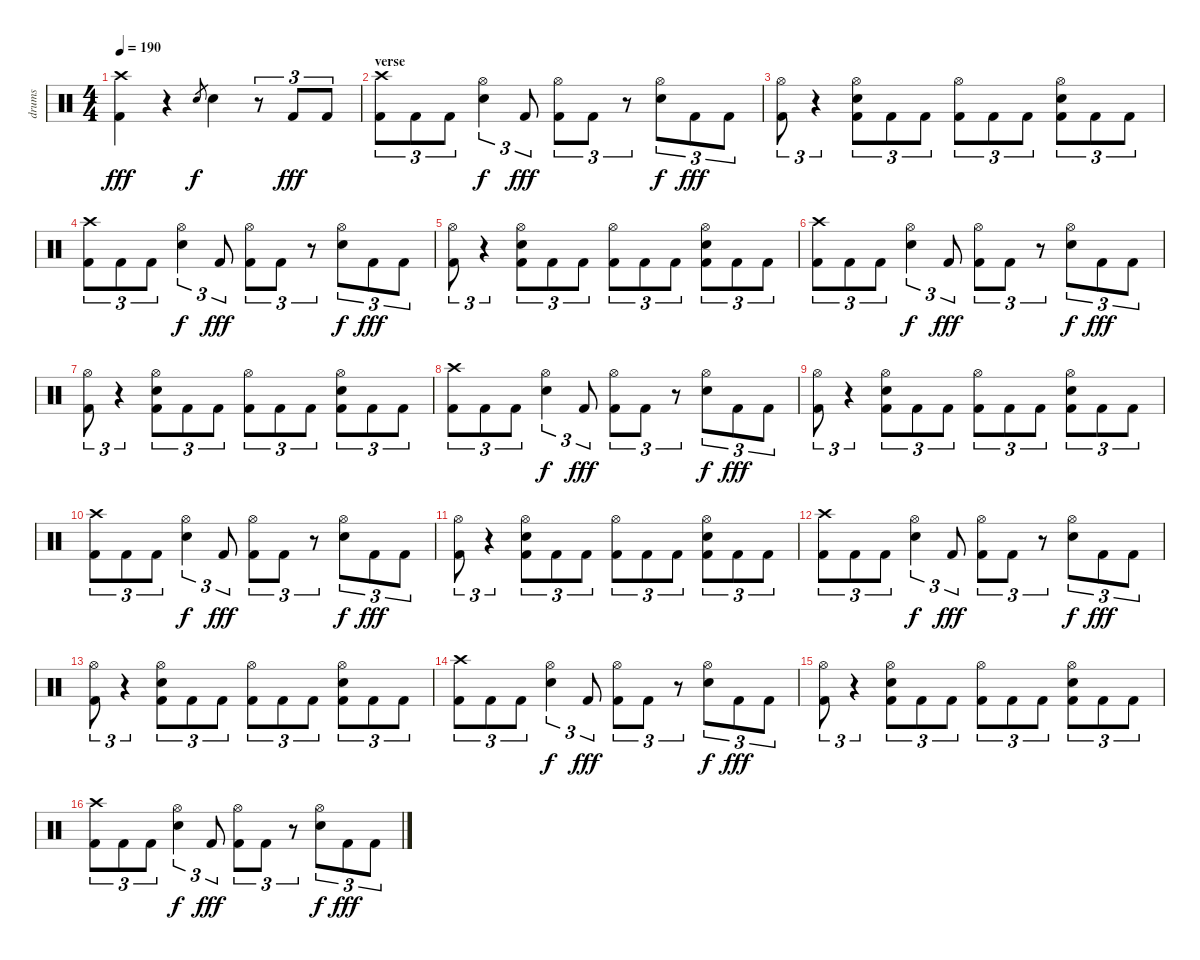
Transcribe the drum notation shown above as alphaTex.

\track ("drums" "drums") {instrument percussion}
\staff {score}
\articulation defaults
\ts (4 4)
\tempo 190
\clef neutral
\ks c
("Crash high (hit)" "Kick (hit) 2").4{dy fff} r.4 "Snare (hit) 2".8{gr dy f} "Snare (hit) 2".4 r.8{tu (3 2)} "Kick (hit) 2".8{tu (3 2) dy fff} "Kick (hit) 2".8{tu (3 2)} |
\section ("" "verse")
("Crash high (hit)" "Kick (hit) 2").8{tu (3 2)} "Kick (hit) 2".8{tu (3 2)} "Kick (hit) 2".8{tu (3 2)} ("Hi-Hat (open)" "Snare (hit) 2").4{tu (3 2) dy f} "Kick (hit) 2".8{tu (3 2) dy fff} ("Hi-Hat (open)" "Kick (hit) 2").8{tu (3 2)} "Kick (hit) 2".8{tu (3 2)} r.8{tu (3 2)} ("Hi-Hat (open)" "Snare (hit) 2").8{tu (3 2) dy f} "Kick (hit) 2".8{tu (3 2) dy fff} "Kick (hit) 2".8{tu (3 2)} |
("Hi-Hat (open)" "Kick (hit) 2").8{tu (3 2)} r.4{tu (3 2)} ("Hi-Hat (open)" "Snare (hit) 2" "Kick (hit) 2").8{tu (3 2)} "Kick (hit) 2".8{tu (3 2)} "Kick (hit) 2".8{tu (3 2)} ("Hi-Hat (open)" "Kick (hit) 2").8{tu (3 2)} "Kick (hit) 2".8{tu (3 2)} "Kick (hit) 2".8{tu (3 2)} ("Hi-Hat (open)" "Snare (hit) 2" "Kick (hit) 2").8{tu (3 2)} "Kick (hit) 2".8{tu (3 2)} "Kick (hit) 2".8{tu (3 2)} |
("Crash high (hit)" "Kick (hit) 2").8{tu (3 2)} "Kick (hit) 2".8{tu (3 2)} "Kick (hit) 2".8{tu (3 2)} ("Hi-Hat (open)" "Snare (hit) 2").4{tu (3 2) dy f} "Kick (hit) 2".8{tu (3 2) dy fff} ("Hi-Hat (open)" "Kick (hit) 2").8{tu (3 2)} "Kick (hit) 2".8{tu (3 2)} r.8{tu (3 2)} ("Hi-Hat (open)" "Snare (hit) 2").8{tu (3 2) dy f} "Kick (hit) 2".8{tu (3 2) dy fff} "Kick (hit) 2".8{tu (3 2)} |
("Hi-Hat (open)" "Kick (hit) 2").8{tu (3 2)} r.4{tu (3 2)} ("Hi-Hat (open)" "Snare (hit) 2" "Kick (hit) 2").8{tu (3 2)} "Kick (hit) 2".8{tu (3 2)} "Kick (hit) 2".8{tu (3 2)} ("Hi-Hat (open)" "Kick (hit) 2").8{tu (3 2)} "Kick (hit) 2".8{tu (3 2)} "Kick (hit) 2".8{tu (3 2)} ("Hi-Hat (open)" "Snare (hit) 2" "Kick (hit) 2").8{tu (3 2)} "Kick (hit) 2".8{tu (3 2)} "Kick (hit) 2".8{tu (3 2)} |
("Crash high (hit)" "Kick (hit) 2").8{tu (3 2)} "Kick (hit) 2".8{tu (3 2)} "Kick (hit) 2".8{tu (3 2)} ("Hi-Hat (open)" "Snare (hit) 2").4{tu (3 2) dy f} "Kick (hit) 2".8{tu (3 2) dy fff} ("Hi-Hat (open)" "Kick (hit) 2").8{tu (3 2)} "Kick (hit) 2".8{tu (3 2)} r.8{tu (3 2)} ("Hi-Hat (open)" "Snare (hit) 2").8{tu (3 2) dy f} "Kick (hit) 2".8{tu (3 2) dy fff} "Kick (hit) 2".8{tu (3 2)} |
("Hi-Hat (open)" "Kick (hit) 2").8{tu (3 2)} r.4{tu (3 2)} ("Hi-Hat (open)" "Snare (hit) 2" "Kick (hit) 2").8{tu (3 2)} "Kick (hit) 2".8{tu (3 2)} "Kick (hit) 2".8{tu (3 2)} ("Hi-Hat (open)" "Kick (hit) 2").8{tu (3 2)} "Kick (hit) 2".8{tu (3 2)} "Kick (hit) 2".8{tu (3 2)} ("Hi-Hat (open)" "Snare (hit) 2" "Kick (hit) 2").8{tu (3 2)} "Kick (hit) 2".8{tu (3 2)} "Kick (hit) 2".8{tu (3 2)} |
("Crash high (hit)" "Kick (hit) 2").8{tu (3 2)} "Kick (hit) 2".8{tu (3 2)} "Kick (hit) 2".8{tu (3 2)} ("Hi-Hat (open)" "Snare (hit) 2").4{tu (3 2) dy f} "Kick (hit) 2".8{tu (3 2) dy fff} ("Hi-Hat (open)" "Kick (hit) 2").8{tu (3 2)} "Kick (hit) 2".8{tu (3 2)} r.8{tu (3 2)} ("Hi-Hat (open)" "Snare (hit) 2").8{tu (3 2) dy f} "Kick (hit) 2".8{tu (3 2) dy fff} "Kick (hit) 2".8{tu (3 2)} |
("Hi-Hat (open)" "Kick (hit) 2").8{tu (3 2)} r.4{tu (3 2)} ("Hi-Hat (open)" "Snare (hit) 2" "Kick (hit) 2").8{tu (3 2)} "Kick (hit) 2".8{tu (3 2)} "Kick (hit) 2".8{tu (3 2)} ("Hi-Hat (open)" "Kick (hit) 2").8{tu (3 2)} "Kick (hit) 2".8{tu (3 2)} "Kick (hit) 2".8{tu (3 2)} ("Hi-Hat (open)" "Snare (hit) 2" "Kick (hit) 2").8{tu (3 2)} "Kick (hit) 2".8{tu (3 2)} "Kick (hit) 2".8{tu (3 2)} |
("Crash high (hit)" "Kick (hit) 2").8{tu (3 2)} "Kick (hit) 2".8{tu (3 2)} "Kick (hit) 2".8{tu (3 2)} ("Hi-Hat (open)" "Snare (hit) 2").4{tu (3 2) dy f} "Kick (hit) 2".8{tu (3 2) dy fff} ("Hi-Hat (open)" "Kick (hit) 2").8{tu (3 2)} "Kick (hit) 2".8{tu (3 2)} r.8{tu (3 2)} ("Hi-Hat (open)" "Snare (hit) 2").8{tu (3 2) dy f} "Kick (hit) 2".8{tu (3 2) dy fff} "Kick (hit) 2".8{tu (3 2)} |
("Hi-Hat (open)" "Kick (hit) 2").8{tu (3 2)} r.4{tu (3 2)} ("Hi-Hat (open)" "Snare (hit) 2" "Kick (hit) 2").8{tu (3 2)} "Kick (hit) 2".8{tu (3 2)} "Kick (hit) 2".8{tu (3 2)} ("Hi-Hat (open)" "Kick (hit) 2").8{tu (3 2)} "Kick (hit) 2".8{tu (3 2)} "Kick (hit) 2".8{tu (3 2)} ("Hi-Hat (open)" "Snare (hit) 2" "Kick (hit) 2").8{tu (3 2)} "Kick (hit) 2".8{tu (3 2)} "Kick (hit) 2".8{tu (3 2)} |
("Crash high (hit)" "Kick (hit) 2").8{tu (3 2)} "Kick (hit) 2".8{tu (3 2)} "Kick (hit) 2".8{tu (3 2)} ("Hi-Hat (open)" "Snare (hit) 2").4{tu (3 2) dy f} "Kick (hit) 2".8{tu (3 2) dy fff} ("Hi-Hat (open)" "Kick (hit) 2").8{tu (3 2)} "Kick (hit) 2".8{tu (3 2)} r.8{tu (3 2)} ("Hi-Hat (open)" "Snare (hit) 2").8{tu (3 2) dy f} "Kick (hit) 2".8{tu (3 2) dy fff} "Kick (hit) 2".8{tu (3 2)} |
("Hi-Hat (open)" "Kick (hit) 2").8{tu (3 2)} r.4{tu (3 2)} ("Hi-Hat (open)" "Snare (hit) 2" "Kick (hit) 2").8{tu (3 2)} "Kick (hit) 2".8{tu (3 2)} "Kick (hit) 2".8{tu (3 2)} ("Hi-Hat (open)" "Kick (hit) 2").8{tu (3 2)} "Kick (hit) 2".8{tu (3 2)} "Kick (hit) 2".8{tu (3 2)} ("Hi-Hat (open)" "Snare (hit) 2" "Kick (hit) 2").8{tu (3 2)} "Kick (hit) 2".8{tu (3 2)} "Kick (hit) 2".8{tu (3 2)} |
("Crash high (hit)" "Kick (hit) 2").8{tu (3 2)} "Kick (hit) 2".8{tu (3 2)} "Kick (hit) 2".8{tu (3 2)} ("Hi-Hat (open)" "Snare (hit) 2").4{tu (3 2) dy f} "Kick (hit) 2".8{tu (3 2) dy fff} ("Hi-Hat (open)" "Kick (hit) 2").8{tu (3 2)} "Kick (hit) 2".8{tu (3 2)} r.8{tu (3 2)} ("Hi-Hat (open)" "Snare (hit) 2").8{tu (3 2) dy f} "Kick (hit) 2".8{tu (3 2) dy fff} "Kick (hit) 2".8{tu (3 2)} |
("Hi-Hat (open)" "Kick (hit) 2").8{tu (3 2)} r.4{tu (3 2)} ("Hi-Hat (open)" "Snare (hit) 2" "Kick (hit) 2").8{tu (3 2)} "Kick (hit) 2".8{tu (3 2)} "Kick (hit) 2".8{tu (3 2)} ("Hi-Hat (open)" "Kick (hit) 2").8{tu (3 2)} "Kick (hit) 2".8{tu (3 2)} "Kick (hit) 2".8{tu (3 2)} ("Hi-Hat (open)" "Snare (hit) 2" "Kick (hit) 2").8{tu (3 2)} "Kick (hit) 2".8{tu (3 2)} "Kick (hit) 2".8{tu (3 2)} |
("Crash high (hit)" "Kick (hit) 2").8{tu (3 2)} "Kick (hit) 2".8{tu (3 2)} "Kick (hit) 2".8{tu (3 2)} ("Hi-Hat (open)" "Snare (hit) 2").4{tu (3 2) dy f} "Kick (hit) 2".8{tu (3 2) dy fff} ("Hi-Hat (open)" "Kick (hit) 2").8{tu (3 2)} "Kick (hit) 2".8{tu (3 2)} r.8{tu (3 2)} ("Hi-Hat (open)" "Snare (hit) 2").8{tu (3 2) dy f} "Kick (hit) 2".8{tu (3 2) dy fff} "Kick (hit) 2".8{tu (3 2)}
